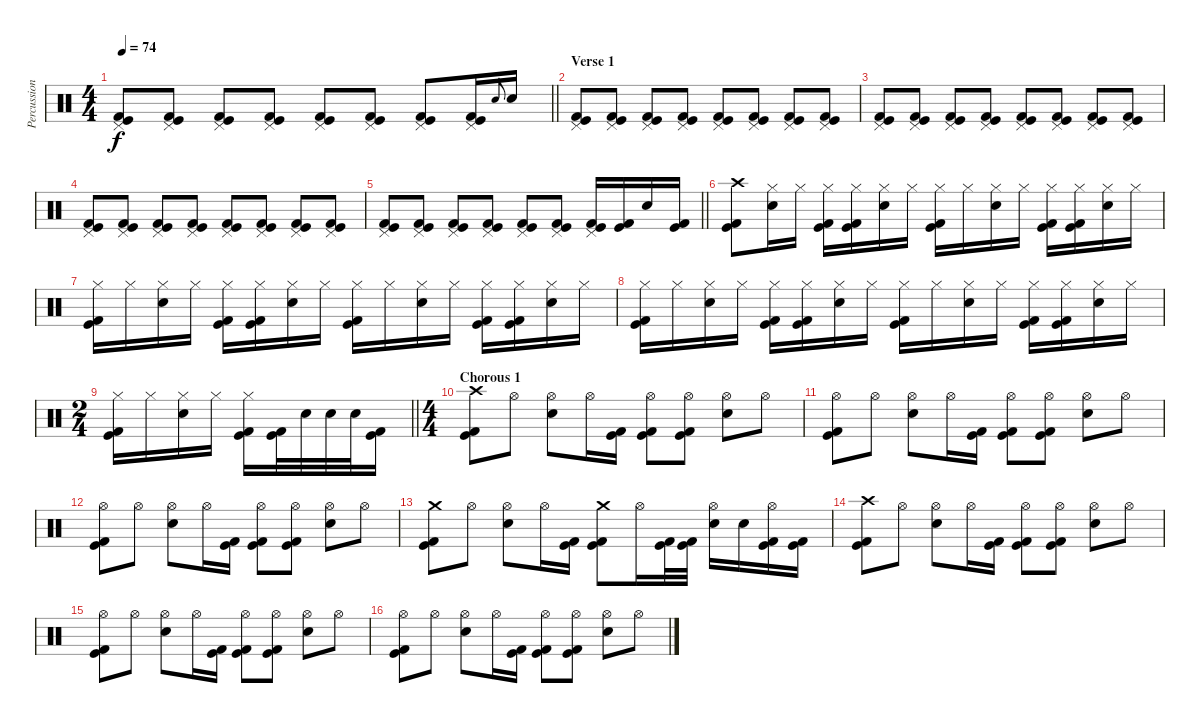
\track ("Percussion" "Percussion") {instrument percussion}
\staff {score}
\articulation defaults
\ts (4 4)
\tempo 74
\clef neutral
\barLineRight lightlight
\ks c
("Pedal Hi-Hat (hit)" "Kick (hit)" "Kick (hit) 2").8{dy f} ("Pedal Hi-Hat (hit)" "Kick (hit)" "Kick (hit) 2").8 ("Pedal Hi-Hat (hit)" "Kick (hit)" "Kick (hit) 2").8 ("Pedal Hi-Hat (hit)" "Kick (hit)" "Kick (hit) 2").8 ("Pedal Hi-Hat (hit)" "Kick (hit)" "Kick (hit) 2").8 ("Pedal Hi-Hat (hit)" "Kick (hit)" "Kick (hit) 2").8 ("Pedal Hi-Hat (hit)" "Kick (hit)" "Kick (hit) 2").8 ("Pedal Hi-Hat (hit)" "Kick (hit)" "Kick (hit) 2").16 "Electric Snare (hit)".8{gr onbeat} "Electric Snare (hit)".16 |
\section ("" "Verse 1")
("Pedal Hi-Hat (hit)" "Kick (hit)" "Kick (hit) 2").8 ("Pedal Hi-Hat (hit)" "Kick (hit)" "Kick (hit) 2").8 ("Pedal Hi-Hat (hit)" "Kick (hit)" "Kick (hit) 2").8 ("Pedal Hi-Hat (hit)" "Kick (hit)" "Kick (hit) 2").8 ("Pedal Hi-Hat (hit)" "Kick (hit)" "Kick (hit) 2").8 ("Pedal Hi-Hat (hit)" "Kick (hit)" "Kick (hit) 2").8 ("Pedal Hi-Hat (hit)" "Kick (hit)" "Kick (hit) 2").8 ("Pedal Hi-Hat (hit)" "Kick (hit)" "Kick (hit) 2").8 |
("Pedal Hi-Hat (hit)" "Kick (hit)" "Kick (hit) 2").8 ("Pedal Hi-Hat (hit)" "Kick (hit)" "Kick (hit) 2").8 ("Pedal Hi-Hat (hit)" "Kick (hit)" "Kick (hit) 2").8 ("Pedal Hi-Hat (hit)" "Kick (hit)" "Kick (hit) 2").8 ("Pedal Hi-Hat (hit)" "Kick (hit)" "Kick (hit) 2").8 ("Pedal Hi-Hat (hit)" "Kick (hit)" "Kick (hit) 2").8 ("Pedal Hi-Hat (hit)" "Kick (hit)" "Kick (hit) 2").8 ("Pedal Hi-Hat (hit)" "Kick (hit)" "Kick (hit) 2").8 |
("Pedal Hi-Hat (hit)" "Kick (hit)" "Kick (hit) 2").8 ("Pedal Hi-Hat (hit)" "Kick (hit)" "Kick (hit) 2").8 ("Pedal Hi-Hat (hit)" "Kick (hit)" "Kick (hit) 2").8 ("Pedal Hi-Hat (hit)" "Kick (hit)" "Kick (hit) 2").8 ("Pedal Hi-Hat (hit)" "Kick (hit)" "Kick (hit) 2").8 ("Pedal Hi-Hat (hit)" "Kick (hit)" "Kick (hit) 2").8 ("Pedal Hi-Hat (hit)" "Kick (hit)" "Kick (hit) 2").8 ("Pedal Hi-Hat (hit)" "Kick (hit)" "Kick (hit) 2").8 |
\barLineRight lightlight
("Pedal Hi-Hat (hit)" "Kick (hit)" "Kick (hit) 2").8 ("Pedal Hi-Hat (hit)" "Kick (hit)" "Kick (hit) 2").8 ("Pedal Hi-Hat (hit)" "Kick (hit)" "Kick (hit) 2").8 ("Pedal Hi-Hat (hit)" "Kick (hit)" "Kick (hit) 2").8 ("Pedal Hi-Hat (hit)" "Kick (hit)" "Kick (hit) 2").8 ("Pedal Hi-Hat (hit)" "Kick (hit)" "Kick (hit) 2").8 ("Pedal Hi-Hat (hit)" "Kick (hit)" "Kick (hit) 2").16 ("Kick (hit)" "Kick (hit) 2").16 "Electric Snare (hit)".16 ("Kick (hit)" "Kick (hit) 2").16 |
\section ("" "")
("Crash high (hit)" "Kick (hit)" "Kick (hit) 2").8 ("Hi-Hat (closed)" "Electric Snare (hit)").16 "Hi-Hat (closed)".16 ("Hi-Hat (closed)" "Kick (hit)" "Kick (hit) 2").16 ("Hi-Hat (closed)" "Kick (hit)" "Kick (hit) 2").16 ("Hi-Hat (closed)" "Electric Snare (hit)").16 "Hi-Hat (closed)".16 ("Hi-Hat (closed)" "Kick (hit)" "Kick (hit) 2").16 "Hi-Hat (closed)".16 ("Hi-Hat (closed)" "Electric Snare (hit)").16 "Hi-Hat (closed)".16 ("Hi-Hat (closed)" "Kick (hit)" "Kick (hit) 2").16 ("Hi-Hat (closed)" "Kick (hit)" "Kick (hit) 2").16 ("Hi-Hat (closed)" "Electric Snare (hit)").16 "Hi-Hat (closed)".16 |
("Hi-Hat (closed)" "Kick (hit)" "Kick (hit) 2").16 "Hi-Hat (closed)".16 ("Hi-Hat (closed)" "Electric Snare (hit)").16 "Hi-Hat (closed)".16 ("Hi-Hat (closed)" "Kick (hit)" "Kick (hit) 2").16 ("Hi-Hat (closed)" "Kick (hit)" "Kick (hit) 2").16 ("Hi-Hat (closed)" "Electric Snare (hit)").16 "Hi-Hat (closed)".16 ("Hi-Hat (closed)" "Kick (hit)" "Kick (hit) 2").16 "Hi-Hat (closed)".16 ("Hi-Hat (closed)" "Electric Snare (hit)").16 "Hi-Hat (closed)".16 ("Hi-Hat (closed)" "Kick (hit)" "Kick (hit) 2").16 ("Hi-Hat (closed)" "Kick (hit)" "Kick (hit) 2").16 ("Hi-Hat (closed)" "Electric Snare (hit)").16 "Hi-Hat (closed)".16 |
("Hi-Hat (closed)" "Kick (hit)" "Kick (hit) 2").16 "Hi-Hat (closed)".16 ("Hi-Hat (closed)" "Electric Snare (hit)").16 "Hi-Hat (closed)".16 ("Hi-Hat (closed)" "Kick (hit)" "Kick (hit) 2").16 ("Hi-Hat (closed)" "Kick (hit)" "Kick (hit) 2").16 ("Hi-Hat (closed)" "Electric Snare (hit)").16 "Hi-Hat (closed)".16 ("Hi-Hat (closed)" "Kick (hit)" "Kick (hit) 2").16 "Hi-Hat (closed)".16 ("Hi-Hat (closed)" "Electric Snare (hit)").16 "Hi-Hat (closed)".16 ("Hi-Hat (closed)" "Kick (hit)" "Kick (hit) 2").16 ("Hi-Hat (closed)" "Kick (hit)" "Kick (hit) 2").16 ("Hi-Hat (closed)" "Electric Snare (hit)").16 "Hi-Hat (closed)".16 |
\ts (2 4)
\barLineRight lightlight
("Hi-Hat (closed)" "Kick (hit)" "Kick (hit) 2").16 "Hi-Hat (closed)".16 ("Hi-Hat (closed)" "Electric Snare (hit)").16 "Hi-Hat (closed)".16 ("Hi-Hat (closed)" "Kick (hit)" "Kick (hit) 2").16 ("Kick (hit)" "Kick (hit) 2").32 "Electric Snare (hit)".32 "Electric Snare (hit)".32 "Electric Snare (hit)".32 ("Kick (hit)" "Kick (hit) 2").16 |
\ts (4 4)
\section ("" "Chorous 1")
("Crash high (hit)" "Kick (hit)" "Kick (hit) 2").8 "Hi-Hat (open)".8 ("Hi-Hat (open)" "Electric Snare (hit)").8 "Hi-Hat (open)".16 ("Kick (hit)" "Kick (hit) 2").16 ("Hi-Hat (open)" "Kick (hit)" "Kick (hit) 2").8 ("Hi-Hat (open)" "Kick (hit)" "Kick (hit) 2").8 ("Hi-Hat (open)" "Electric Snare (hit)").8 "Hi-Hat (open)".8 |
("Hi-Hat (open)" "Kick (hit)" "Kick (hit) 2").8 "Hi-Hat (open)".8 ("Hi-Hat (open)" "Electric Snare (hit)").8 "Hi-Hat (open)".16 ("Kick (hit)" "Kick (hit) 2").16 ("Hi-Hat (open)" "Kick (hit)" "Kick (hit) 2").8 ("Hi-Hat (open)" "Kick (hit)" "Kick (hit) 2").8 ("Hi-Hat (open)" "Electric Snare (hit)").8 "Hi-Hat (open)".8 |
("Hi-Hat (open)" "Kick (hit)" "Kick (hit) 2").8 "Hi-Hat (open)".8 ("Hi-Hat (open)" "Electric Snare (hit)").8 "Hi-Hat (open)".16 ("Kick (hit)" "Kick (hit) 2").16 ("Hi-Hat (open)" "Kick (hit)" "Kick (hit) 2").8 ("Hi-Hat (open)" "Kick (hit)" "Kick (hit) 2").8 ("Hi-Hat (open)" "Electric Snare (hit)").8 "Hi-Hat (open)".8 |
("Crash medium (hit)" "Kick (hit)" "Kick (hit) 2").8 "Hi-Hat (open)".8 ("Hi-Hat (open)" "Electric Snare (hit)").8 "Hi-Hat (open)".16 ("Kick (hit)" "Kick (hit) 2").16 ("Crash medium (hit)" "Kick (hit)" "Kick (hit) 2").8 "Hi-Hat (open)".16 ("Kick (hit)" "Kick (hit) 2").32 ("Kick (hit)" "Kick (hit) 2").32 ("Hi-Hat (open)" "Electric Snare (hit)").16 "Electric Snare (hit)".16 ("Hi-Hat (open)" "Kick (hit)" "Kick (hit) 2").16 ("Kick (hit)" "Kick (hit) 2").16 |
("Crash high (hit)" "Kick (hit)" "Kick (hit) 2").8 "Hi-Hat (open)".8 ("Hi-Hat (open)" "Electric Snare (hit)").8 "Hi-Hat (open)".16 ("Kick (hit)" "Kick (hit) 2").16 ("Hi-Hat (open)" "Kick (hit)" "Kick (hit) 2").8 ("Hi-Hat (open)" "Kick (hit)" "Kick (hit) 2").8 ("Hi-Hat (open)" "Electric Snare (hit)").8 "Hi-Hat (open)".8 |
("Hi-Hat (open)" "Kick (hit)" "Kick (hit) 2").8 "Hi-Hat (open)".8 ("Hi-Hat (open)" "Electric Snare (hit)").8 "Hi-Hat (open)".16 ("Kick (hit)" "Kick (hit) 2").16 ("Hi-Hat (open)" "Kick (hit)" "Kick (hit) 2").8 ("Hi-Hat (open)" "Kick (hit)" "Kick (hit) 2").8 ("Hi-Hat (open)" "Electric Snare (hit)").8 "Hi-Hat (open)".8 |
("Hi-Hat (open)" "Kick (hit)" "Kick (hit) 2").8 "Hi-Hat (open)".8 ("Hi-Hat (open)" "Electric Snare (hit)").8 "Hi-Hat (open)".16 ("Kick (hit)" "Kick (hit) 2").16 ("Hi-Hat (open)" "Kick (hit)" "Kick (hit) 2").8 ("Hi-Hat (open)" "Kick (hit)" "Kick (hit) 2").8 ("Hi-Hat (open)" "Electric Snare (hit)").8 "Hi-Hat (open)".8
